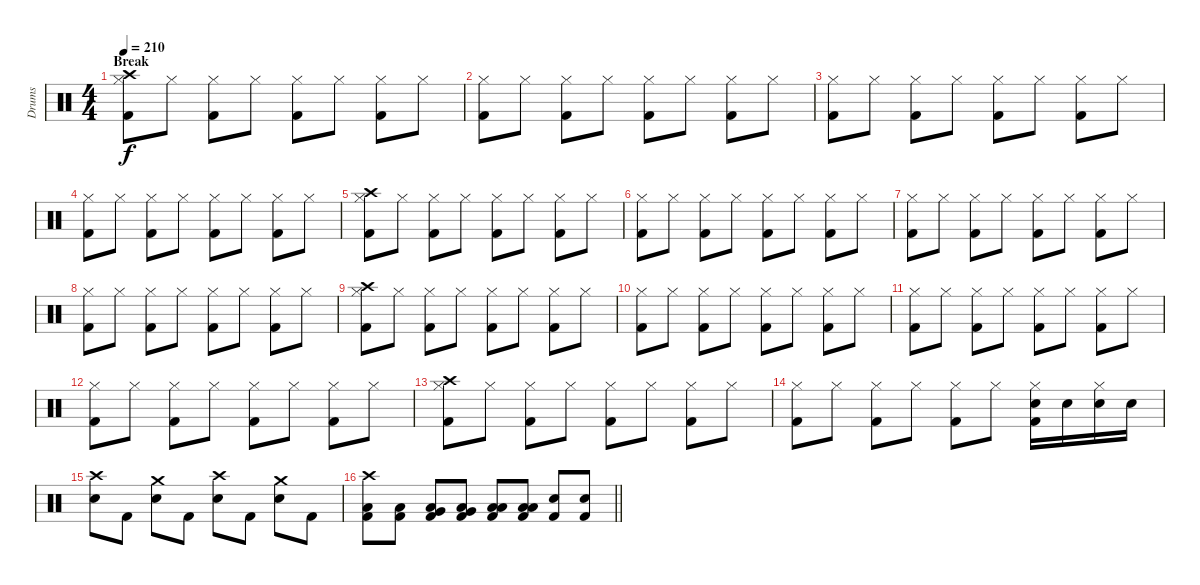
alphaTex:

\track ("Drums" "Drums") {instrument percussion}
\staff {score}
\articulation defaults
\ts (4 4)
\section ("" "Break")
\tempo 210
\clef neutral
\ks c
("Crash high (hit)" "Hi-Hat (closed)" "Kick (hit) 2").8{dy f} "Hi-Hat (closed)".8 ("Hi-Hat (closed)" "Kick (hit) 2").8 "Hi-Hat (closed)".8 ("Hi-Hat (closed)" "Kick (hit) 2").8 "Hi-Hat (closed)".8 ("Hi-Hat (closed)" "Kick (hit) 2").8 "Hi-Hat (closed)".8 |
("Hi-Hat (closed)" "Kick (hit) 2").8 "Hi-Hat (closed)".8 ("Hi-Hat (closed)" "Kick (hit) 2").8 "Hi-Hat (closed)".8 ("Hi-Hat (closed)" "Kick (hit) 2").8 "Hi-Hat (closed)".8 ("Hi-Hat (closed)" "Kick (hit) 2").8 "Hi-Hat (closed)".8 |
("Hi-Hat (closed)" "Kick (hit) 2").8 "Hi-Hat (closed)".8 ("Hi-Hat (closed)" "Kick (hit) 2").8 "Hi-Hat (closed)".8 ("Hi-Hat (closed)" "Kick (hit) 2").8 "Hi-Hat (closed)".8 ("Hi-Hat (closed)" "Kick (hit) 2").8 "Hi-Hat (closed)".8 |
("Hi-Hat (closed)" "Kick (hit) 2").8 "Hi-Hat (closed)".8 ("Hi-Hat (closed)" "Kick (hit) 2").8 "Hi-Hat (closed)".8 ("Hi-Hat (closed)" "Kick (hit) 2").8 "Hi-Hat (closed)".8 ("Hi-Hat (closed)" "Kick (hit) 2").8 "Hi-Hat (closed)".8 |
("Crash high (hit)" "Hi-Hat (closed)" "Kick (hit) 2").8 "Hi-Hat (closed)".8 ("Hi-Hat (closed)" "Kick (hit) 2").8 "Hi-Hat (closed)".8 ("Hi-Hat (closed)" "Kick (hit) 2").8 "Hi-Hat (closed)".8 ("Hi-Hat (closed)" "Kick (hit) 2").8 "Hi-Hat (closed)".8 |
("Hi-Hat (closed)" "Kick (hit) 2").8 "Hi-Hat (closed)".8 ("Hi-Hat (closed)" "Kick (hit) 2").8 "Hi-Hat (closed)".8 ("Hi-Hat (closed)" "Kick (hit) 2").8 "Hi-Hat (closed)".8 ("Hi-Hat (closed)" "Kick (hit) 2").8 "Hi-Hat (closed)".8 |
("Hi-Hat (closed)" "Kick (hit) 2").8 "Hi-Hat (closed)".8 ("Hi-Hat (closed)" "Kick (hit) 2").8 "Hi-Hat (closed)".8 ("Hi-Hat (closed)" "Kick (hit) 2").8 "Hi-Hat (closed)".8 ("Hi-Hat (closed)" "Kick (hit) 2").8 "Hi-Hat (closed)".8 |
("Hi-Hat (closed)" "Kick (hit) 2").8 "Hi-Hat (closed)".8 ("Hi-Hat (closed)" "Kick (hit) 2").8 "Hi-Hat (closed)".8 ("Hi-Hat (closed)" "Kick (hit) 2").8 "Hi-Hat (closed)".8 ("Hi-Hat (closed)" "Kick (hit) 2").8 "Hi-Hat (closed)".8 |
("Crash high (hit)" "Hi-Hat (closed)" "Kick (hit) 2").8 "Hi-Hat (closed)".8 ("Hi-Hat (closed)" "Kick (hit) 2").8 "Hi-Hat (closed)".8 ("Hi-Hat (closed)" "Kick (hit) 2").8 "Hi-Hat (closed)".8 ("Hi-Hat (closed)" "Kick (hit) 2").8 "Hi-Hat (closed)".8 |
("Hi-Hat (closed)" "Kick (hit) 2").8 "Hi-Hat (closed)".8 ("Hi-Hat (closed)" "Kick (hit) 2").8 "Hi-Hat (closed)".8 ("Hi-Hat (closed)" "Kick (hit) 2").8 "Hi-Hat (closed)".8 ("Hi-Hat (closed)" "Kick (hit) 2").8 "Hi-Hat (closed)".8 |
("Hi-Hat (closed)" "Kick (hit) 2").8 "Hi-Hat (closed)".8 ("Hi-Hat (closed)" "Kick (hit) 2").8 "Hi-Hat (closed)".8 ("Hi-Hat (closed)" "Kick (hit) 2").8 "Hi-Hat (closed)".8 ("Hi-Hat (closed)" "Kick (hit) 2").8 "Hi-Hat (closed)".8 |
("Hi-Hat (closed)" "Kick (hit) 2").8 "Hi-Hat (closed)".8 ("Hi-Hat (closed)" "Kick (hit) 2").8 "Hi-Hat (closed)".8 ("Hi-Hat (closed)" "Kick (hit) 2").8 "Hi-Hat (closed)".8 ("Hi-Hat (closed)" "Kick (hit) 2").8 "Hi-Hat (closed)".8 |
("Crash high (hit)" "Hi-Hat (closed)" "Kick (hit) 2").8 "Hi-Hat (closed)".8 ("Hi-Hat (closed)" "Kick (hit) 2").8 "Hi-Hat (closed)".8 ("Hi-Hat (closed)" "Kick (hit) 2").8 "Hi-Hat (closed)".8 ("Hi-Hat (closed)" "Kick (hit) 2").8 "Hi-Hat (closed)".8 |
("Hi-Hat (closed)" "Kick (hit) 2").8 "Hi-Hat (closed)".8 ("Hi-Hat (closed)" "Kick (hit) 2").8 "Hi-Hat (closed)".8 ("Hi-Hat (closed)" "Kick (hit) 2").8 "Hi-Hat (closed)".8 ("Hi-Hat (closed)" "Snare (hit) 2" "Kick (hit) 2").16 "Snare (hit) 2".16 ("Hi-Hat (closed)" "Snare (hit) 2").16 "Snare (hit) 2".16 |
("Crash high (hit)" "Snare (hit) 2").8 "Kick (hit) 2".8 ("Crash medium (hit)" "Snare (hit) 2").8 "Kick (hit) 2".8 ("Crash high (hit)" "Snare (hit) 2").8 "Kick (hit) 2".8 ("Crash medium (hit)" "Snare (hit) 2").8 "Kick (hit) 2".8 |
\barLineRight lightlight
("Crash high (hit)" "Low Floor Tom (hit)" "Kick (hit) 2").8 ("Low Floor Tom (hit)" "Kick (hit) 2").8 ("Very Low Tom (hit)" "Low Floor Tom (hit)" "Kick (hit) 2").8 ("Very Low Tom (hit)" "Low Floor Tom (hit)" "Kick (hit) 2").8 ("Low Tom (hit)" "Low Floor Tom (hit)" "Kick (hit) 2").8 ("Low Tom (hit)" "Low Floor Tom (hit)" "Kick (hit) 2").8 ("Snare (hit) 2" "Kick (hit) 2").8 ("Snare (hit) 2" "Kick (hit) 2").8
